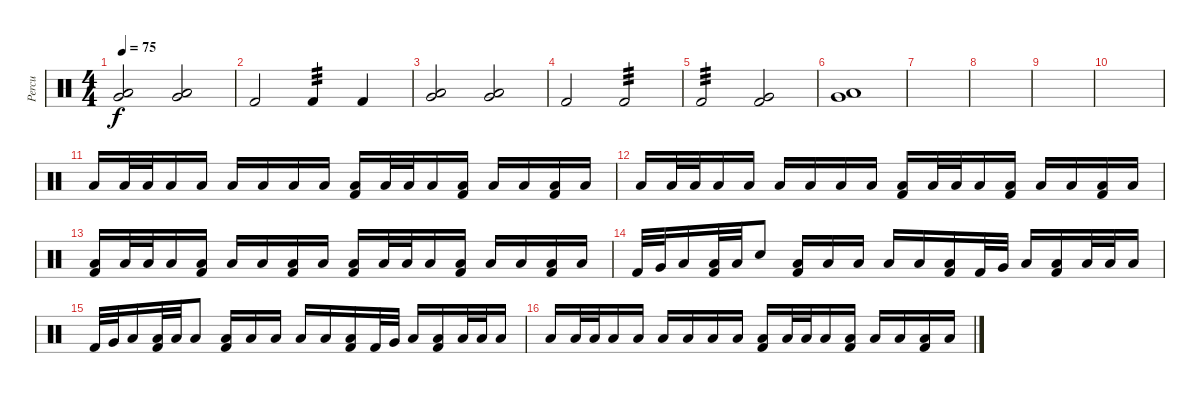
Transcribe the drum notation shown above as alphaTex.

\track ("Percu" "Percu") {instrument percussion}
\staff {score}
\articulation defaults
\ts (4 4)
\tempo 75
\clef neutral
\ks c
("Very Low Tom (hit)" "Low Floor Tom (hit)").2{dy f} ("Very Low Tom (hit)" "Low Floor Tom (hit)").2 |
"Kick (hit) 2".2 "Kick (hit) 2".4{tp 3} "Kick (hit) 2".4 |
("Very Low Tom (hit)" "Low Floor Tom (hit)").2 ("Very Low Tom (hit)" "Low Floor Tom (hit)").2 |
"Kick (hit) 2".2 "Kick (hit) 2".2{tp 3} |
"Kick (hit) 2".2{tp 3} ("Kick (hit) 2" "Very Low Tom (hit)").2 |
("Very Low Tom (hit)" "Low Floor Tom (hit)").1 |
|
|
|
|
"Low Floor Tom (hit)".16 "Low Floor Tom (hit)".32 "Low Floor Tom (hit)".32 "Low Floor Tom (hit)".16 "Low Floor Tom (hit)".16 "Low Floor Tom (hit)".16 "Low Floor Tom (hit)".16 "Low Floor Tom (hit)".16 "Low Floor Tom (hit)".16 ("Low Floor Tom (hit)" "Kick (hit) 2").16 "Low Floor Tom (hit)".32 "Low Floor Tom (hit)".32 "Low Floor Tom (hit)".16 ("Low Floor Tom (hit)" "Kick (hit) 2").16 "Low Floor Tom (hit)".16 "Low Floor Tom (hit)".16 ("Low Floor Tom (hit)" "Kick (hit) 2").16 "Low Floor Tom (hit)".16 |
"Low Floor Tom (hit)".16 "Low Floor Tom (hit)".32 "Low Floor Tom (hit)".32 "Low Floor Tom (hit)".16 "Low Floor Tom (hit)".16 "Low Floor Tom (hit)".16 "Low Floor Tom (hit)".16 "Low Floor Tom (hit)".16 "Low Floor Tom (hit)".16 ("Low Floor Tom (hit)" "Kick (hit) 2").16 "Low Floor Tom (hit)".32 "Low Floor Tom (hit)".32 "Low Floor Tom (hit)".16 ("Low Floor Tom (hit)" "Kick (hit) 2").16 "Low Floor Tom (hit)".16 "Low Floor Tom (hit)".16 ("Low Floor Tom (hit)" "Kick (hit) 2").16 "Low Floor Tom (hit)".16 |
("Low Floor Tom (hit)" "Kick (hit) 2").16 "Low Floor Tom (hit)".32 "Low Floor Tom (hit)".32 "Low Floor Tom (hit)".16 ("Low Floor Tom (hit)" "Kick (hit) 2").16 "Low Floor Tom (hit)".16 "Low Floor Tom (hit)".16 ("Low Floor Tom (hit)" "Kick (hit) 2").16 "Low Floor Tom (hit)".16 ("Low Floor Tom (hit)" "Kick (hit) 2").16 "Low Floor Tom (hit)".32 "Low Floor Tom (hit)".32 "Low Floor Tom (hit)".16 ("Low Floor Tom (hit)" "Kick (hit) 2").16 "Low Floor Tom (hit)".16 "Low Floor Tom (hit)".16 ("Low Floor Tom (hit)" "Kick (hit) 2").16 "Low Floor Tom (hit)".16 |
"Kick (hit) 2".32 "Very Low Tom (hit)".32 "Low Floor Tom (hit)".16 ("Low Floor Tom (hit)" "Kick (hit) 2").32 "Low Floor Tom (hit)".32 "Snare (hit)".8 ("Low Floor Tom (hit)" "Kick (hit) 2").16 "Low Floor Tom (hit)".16 "Low Floor Tom (hit)".16 "Low Floor Tom (hit)".16 "Low Floor Tom (hit)".16 ("Low Floor Tom (hit)" "Kick (hit) 2").16 "Kick (hit) 2".32 "Very Low Tom (hit)".32 "Low Floor Tom (hit)".16 ("Low Floor Tom (hit)" "Kick (hit) 2").16 "Low Floor Tom (hit)".32 "Low Floor Tom (hit)".32 "Low Floor Tom (hit)".16 |
"Kick (hit) 2".32 "Very Low Tom (hit)".32 "Low Floor Tom (hit)".16 ("Low Floor Tom (hit)" "Kick (hit) 2").32 "Low Floor Tom (hit)".32 "Low Floor Tom (hit)".8 ("Low Floor Tom (hit)" "Kick (hit) 2").16 "Low Floor Tom (hit)".16 "Low Floor Tom (hit)".16 "Low Floor Tom (hit)".16 "Low Floor Tom (hit)".16 ("Low Floor Tom (hit)" "Kick (hit) 2").16 "Kick (hit) 2".32 "Very Low Tom (hit)".32 "Low Floor Tom (hit)".16 ("Low Floor Tom (hit)" "Kick (hit) 2").16 "Low Floor Tom (hit)".32 "Low Floor Tom (hit)".32 "Low Floor Tom (hit)".16 |
"Low Floor Tom (hit)".16 "Low Floor Tom (hit)".32 "Low Floor Tom (hit)".32 "Low Floor Tom (hit)".16 "Low Floor Tom (hit)".16 "Low Floor Tom (hit)".16 "Low Floor Tom (hit)".16 "Low Floor Tom (hit)".16 "Low Floor Tom (hit)".16 ("Low Floor Tom (hit)" "Kick (hit) 2").16 "Low Floor Tom (hit)".32 "Low Floor Tom (hit)".32 "Low Floor Tom (hit)".16 ("Low Floor Tom (hit)" "Kick (hit) 2").16 "Low Floor Tom (hit)".16 "Low Floor Tom (hit)".16 ("Low Floor Tom (hit)" "Kick (hit) 2").16 "Low Floor Tom (hit)".16
